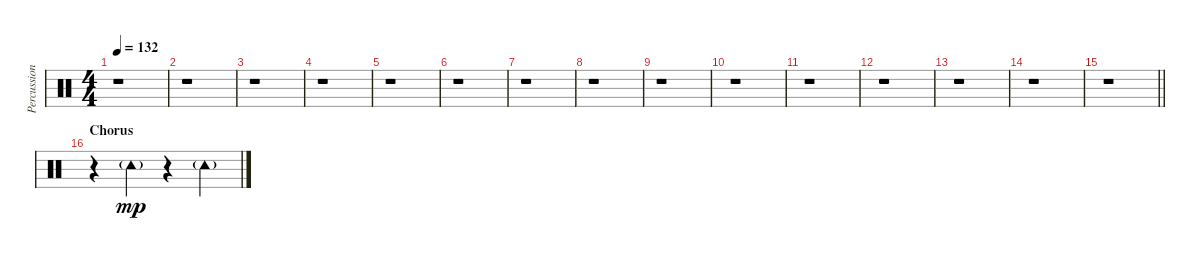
\track ("Percussion" "Percussion") {instrument percussion}
\staff {score}
\articulation defaults
\ts (4 4)
\tempo 132
\clef neutral
\ks c
r.1{dy mp} |
r.1 |
r.1 |
r.1 |
r.1 |
r.1 |
r.1 |
r.1 |
r.1 |
r.1 |
r.1 |
r.1 |
r.1 |
r.1 |
\barLineRight lightlight
r.1 |
\section ("" "Chorus")
r.4 "Tambourine (hit)"{g}.4 r.4 "Tambourine (hit)"{g}.4
